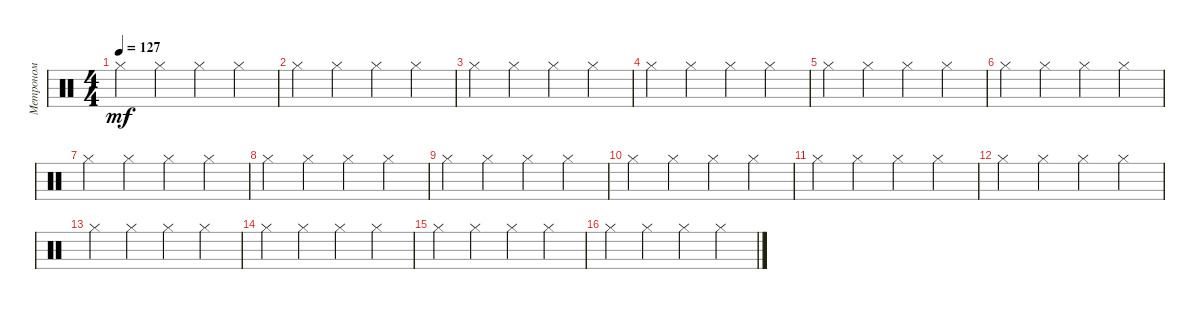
\track ("Метроном" "Метроном") {instrument percussion}
\staff {score}
\articulation defaults
\ts (4 4)
\tempo 127
\clef neutral
\ks c "Hi-Hat (closed)".4{dy mf} "Hi-Hat (closed)".4 "Hi-Hat (closed)".4 "Hi-Hat (closed)".4
|
"Hi-Hat (closed)".4 "Hi-Hat (closed)".4 "Hi-Hat (closed)".4 "Hi-Hat (closed)".4 |
"Hi-Hat (closed)".4 "Hi-Hat (closed)".4 "Hi-Hat (closed)".4 "Hi-Hat (closed)".4 |
"Hi-Hat (closed)".4 "Hi-Hat (closed)".4 "Hi-Hat (closed)".4 "Hi-Hat (closed)".4 |
"Hi-Hat (closed)".4 "Hi-Hat (closed)".4 "Hi-Hat (closed)".4 "Hi-Hat (closed)".4 |
"Hi-Hat (closed)".4 "Hi-Hat (closed)".4 "Hi-Hat (closed)".4 "Hi-Hat (closed)".4 |
"Hi-Hat (closed)".4 "Hi-Hat (closed)".4 "Hi-Hat (closed)".4 "Hi-Hat (closed)".4 |
"Hi-Hat (closed)".4 "Hi-Hat (closed)".4 "Hi-Hat (closed)".4 "Hi-Hat (closed)".4 |
"Hi-Hat (closed)".4 "Hi-Hat (closed)".4 "Hi-Hat (closed)".4 "Hi-Hat (closed)".4 |
"Hi-Hat (closed)".4 "Hi-Hat (closed)".4 "Hi-Hat (closed)".4 "Hi-Hat (closed)".4 |
"Hi-Hat (closed)".4 "Hi-Hat (closed)".4 "Hi-Hat (closed)".4 "Hi-Hat (closed)".4 |
"Hi-Hat (closed)".4 "Hi-Hat (closed)".4 "Hi-Hat (closed)".4 "Hi-Hat (closed)".4 |
"Hi-Hat (closed)".4 "Hi-Hat (closed)".4 "Hi-Hat (closed)".4 "Hi-Hat (closed)".4 |
"Hi-Hat (closed)".4 "Hi-Hat (closed)".4 "Hi-Hat (closed)".4 "Hi-Hat (closed)".4 |
"Hi-Hat (closed)".4 "Hi-Hat (closed)".4 "Hi-Hat (closed)".4 "Hi-Hat (closed)".4 |
"Hi-Hat (closed)".4 "Hi-Hat (closed)".4 "Hi-Hat (closed)".4 "Hi-Hat (closed)".4
